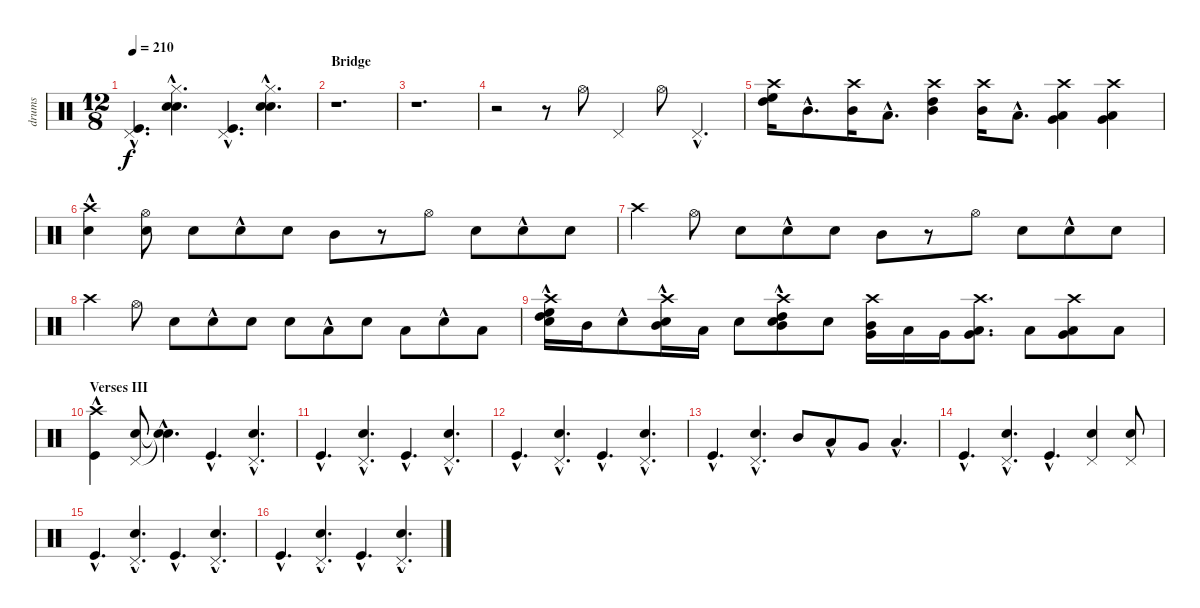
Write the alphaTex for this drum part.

\track ("drums" "drums") {instrument percussion}
\staff {score}
\articulation defaults
\ts (12 8)
\tempo 210
\clef neutral
\ks c
("Pedal Hi-Hat (hit)"{hac} "Kick (hit)"{hac}).4{d dy f} ("Electric Snare (hit)"{hac} "Snare (hit) 2"{hac} "Hi-Hat (closed)"{hac}).4{d} ("Pedal Hi-Hat (hit)"{hac} "Kick (hit)"{hac}).4{d} ("Electric Snare (hit)"{hac} "Snare (hit) 2"{hac} "Hi-Hat (closed)"{hac}).4{d} |
\section ("" "Bridge")
r.1{d} |
r.1{d} |
r.2 r.8 "Hi-Hat (open)".8 "Pedal Hi-Hat (hit)".4 "Hi-Hat (open)".8 "Pedal Hi-Hat (hit)"{hac}.4{d} |
("High Tom (hit)" "High Floor Tom (hit)" "Crash high (hit)").16 "Mid Tom (hit)"{hac}.8{d} ("Mid Tom (hit)" "Crash high (hit)").16 "Low Tom (hit)"{hac}.8{d} ("High Tom (hit)" "Crash high (hit)" "Mid Tom (hit)").4 ("Mid Tom (hit)" "Crash high (hit)").16 "Low Tom (hit)"{hac}.8{d} ("Low Tom (hit)" "Very Low Tom (hit)" "Crash high (hit)").4 ("Very Low Tom (hit)" "Crash high (hit)" "Low Floor Tom (hit)").4 |
("Crash high (hit)" "Electric Snare (hit)"{hac}).4 ("Electric Snare (hit)" "Hi-Hat (open)").8 "Electric Snare (hit)".8 "Snare (hit) 2"{hac}.8 "Electric Snare (hit)".8 "Mid Tom (hit)".8 r.8 "Hi-Hat (open)".8 "Electric Snare (hit)".8 "Electric Snare (hit)"{hac}.8 "Snare (hit) 2".8 |
"Crash high (hit)".4 "Hi-Hat (open)".8 "Electric Snare (hit)".8 "Electric Snare (hit)"{hac}.8 "Snare (hit) 2".8 "Mid Tom (hit)".8 r.8 "Hi-Hat (open)".8 "Electric Snare (hit)".8 "Electric Snare (hit)"{hac}.8 "Snare (hit) 2".8 |
"Crash high (hit)".4 "Hi-Hat (open)".8 "Electric Snare (hit)".8 "Electric Snare (hit)"{hac}.8 "Snare (hit) 2".8 "Electric Snare (hit)".8 "Low Floor Tom (hit)"{hac}.8 "Electric Snare (hit)".8 "Low Floor Tom (hit)".8 "Electric Snare (hit)"{hac}.8 "Low Floor Tom (hit)".8 |
("High Tom (hit)" "Electric Snare (hit)"{hac} "High Floor Tom (hit)" "Crash high (hit)").16 "Mid Tom (hit)".16 "Electric Snare (hit)"{hac}.8 ("Mid Tom (hit)" "Electric Snare (hit)"{hac} "Crash high (hit)").16 "Low Tom (hit)".16 "Snare (hit) 2".8 ("High Tom (hit)" "Snare (hit) 2"{hac} "Crash high (hit)" "Mid Tom (hit)").8 "Snare (hit) 2".8 ("Mid Tom (hit)" "Very Low Tom (hit)" "Crash high (hit)").16 "Low Tom (hit)".16 "Very Low Tom (hit)".16 ("Low Tom (hit)" "Very Low Tom (hit)" "Crash high (hit)").8{d} "Low Floor Tom (hit)".8 ("Very Low Tom (hit)" "Crash high (hit)" "Low Floor Tom (hit)").8 "Low Floor Tom (hit)".8 |
\section ("" "Verses III")
("Kick (hit)"{hac} "Crash high (hit)").4 ("Electric Snare (hit)" "Pedal Hi-Hat (hit)").8 ("Snare (hit)"{hac t} "Snare (hit)"{hac t}).4{d} "Kick (hit)"{hac}.4{d} ("Electric Snare (hit)"{hac} "Pedal Hi-Hat (hit)"{hac}).4{d} |
"Kick (hit)"{hac}.4{d} ("Electric Snare (hit)"{hac} "Pedal Hi-Hat (hit)"{hac}).4{d} "Kick (hit)"{hac}.4{d} ("Electric Snare (hit)"{hac} "Pedal Hi-Hat (hit)"{hac}).4{d} |
"Kick (hit)"{hac}.4{d} ("Electric Snare (hit)"{hac} "Pedal Hi-Hat (hit)"{hac}).4{d} "Kick (hit)"{hac}.4{d} ("Electric Snare (hit)"{hac} "Pedal Hi-Hat (hit)"{hac}).4{d} |
"Kick (hit)"{hac}.4{d} ("Electric Snare (hit)"{hac} "Pedal Hi-Hat (hit)"{hac}).4{d} "Mid Tom (hit)".8 "Low Tom (hit)"{hac}.8 "Very Low Tom (hit)".8 "Low Floor Tom (hit)"{hac}.4{d} |
"Kick (hit)"{hac}.4{d} ("Electric Snare (hit)"{hac} "Pedal Hi-Hat (hit)"{hac}).4{d} "Kick (hit)"{hac}.4{d} ("Electric Snare (hit)" "Pedal Hi-Hat (hit)").4 ("Pedal Hi-Hat (hit)" "Electric Snare (hit)").8 |
"Kick (hit)"{hac}.4{d} ("Electric Snare (hit)"{hac} "Pedal Hi-Hat (hit)"{hac}).4{d} "Kick (hit)"{hac}.4{d} ("Electric Snare (hit)"{hac} "Pedal Hi-Hat (hit)"{hac}).4{d} |
"Kick (hit)"{hac}.4{d} ("Electric Snare (hit)"{hac} "Pedal Hi-Hat (hit)"{hac}).4{d} "Kick (hit)"{hac}.4{d} ("Electric Snare (hit)"{hac} "Pedal Hi-Hat (hit)"{hac}).4{d}
